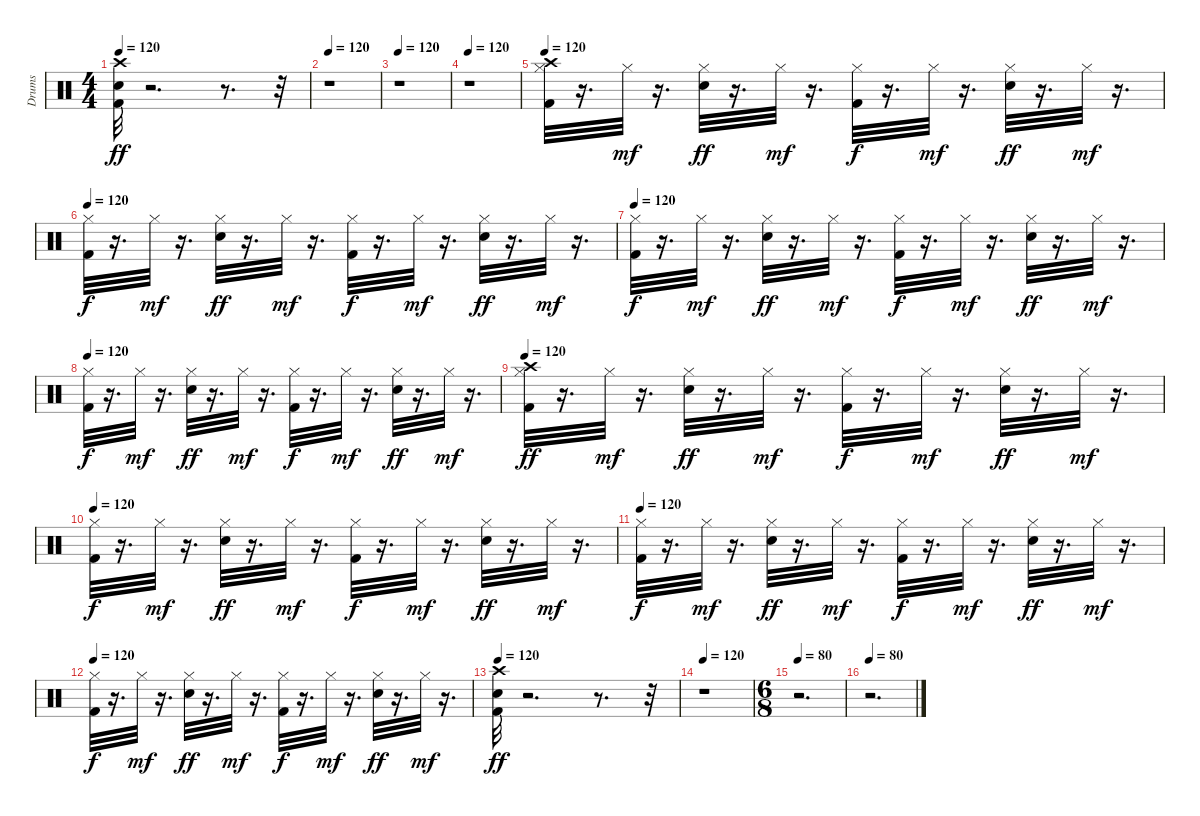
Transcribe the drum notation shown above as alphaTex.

\track ("Drums" "Drums") {instrument percussion}
\staff {score}
\articulation defaults
\ts (4 4)
\tempo 120
\clef neutral
\ks c
("Snare (hit) 2" "Kick (hit) 2" "Crash high (hit)").32{dy ff} r.2{d} r.8{d} r.32 |
\tempo 120
r.1 |
\tempo 120
r.1 |
\tempo 120
r.1 |
\tempo 120
("Kick (hit) 2" "Hi-Hat (closed)" "Crash high (hit)").32 r.16{d} "Hi-Hat (closed)".32{dy mf} r.16{d} ("Snare (hit) 2" "Hi-Hat (closed)").32{dy ff} r.16{d} "Hi-Hat (closed)".32{dy mf} r.16{d} ("Kick (hit) 2" "Hi-Hat (closed)").32{dy f} r.16{d} "Hi-Hat (closed)".32{dy mf} r.16{d} ("Snare (hit) 2" "Hi-Hat (closed)").32{dy ff} r.16{d} "Hi-Hat (closed)".32{dy mf} r.16{d} |
\tempo 120
("Kick (hit) 2" "Hi-Hat (closed)").32{dy f} r.16{d} "Hi-Hat (closed)".32{dy mf} r.16{d} ("Snare (hit) 2" "Hi-Hat (closed)").32{dy ff} r.16{d} "Hi-Hat (closed)".32{dy mf} r.16{d} ("Kick (hit) 2" "Hi-Hat (closed)").32{dy f} r.16{d} "Hi-Hat (closed)".32{dy mf} r.16{d} ("Snare (hit) 2" "Hi-Hat (closed)").32{dy ff} r.16{d} "Hi-Hat (closed)".32{dy mf} r.16{d} |
\tempo 120
("Kick (hit) 2" "Hi-Hat (closed)").32{dy f} r.16{d} "Hi-Hat (closed)".32{dy mf} r.16{d} ("Snare (hit) 2" "Hi-Hat (closed)").32{dy ff} r.16{d} "Hi-Hat (closed)".32{dy mf} r.16{d} ("Kick (hit) 2" "Hi-Hat (closed)").32{dy f} r.16{d} "Hi-Hat (closed)".32{dy mf} r.16{d} ("Snare (hit) 2" "Hi-Hat (closed)").32{dy ff} r.16{d} "Hi-Hat (closed)".32{dy mf} r.16{d} |
\tempo 120
("Kick (hit) 2" "Hi-Hat (closed)").32{dy f} r.16{d} "Hi-Hat (closed)".32{dy mf} r.16{d} ("Snare (hit) 2" "Hi-Hat (closed)").32{dy ff} r.16{d} "Hi-Hat (closed)".32{dy mf} r.16{d} ("Kick (hit) 2" "Hi-Hat (closed)").32{dy f} r.16{d} "Hi-Hat (closed)".32{dy mf} r.16{d} ("Snare (hit) 2" "Hi-Hat (closed)").32{dy ff} r.16{d} "Hi-Hat (closed)".32{dy mf} r.16{d} |
\tempo 120
("Kick (hit) 2" "Hi-Hat (closed)" "Crash high (hit)").32{dy ff} r.16{d} "Hi-Hat (closed)".32{dy mf} r.16{d} ("Snare (hit) 2" "Hi-Hat (closed)").32{dy ff} r.16{d} "Hi-Hat (closed)".32{dy mf} r.16{d} ("Kick (hit) 2" "Hi-Hat (closed)").32{dy f} r.16{d} "Hi-Hat (closed)".32{dy mf} r.16{d} ("Snare (hit) 2" "Hi-Hat (closed)").32{dy ff} r.16{d} "Hi-Hat (closed)".32{dy mf} r.16{d} |
\tempo 120
("Kick (hit) 2" "Hi-Hat (closed)").32{dy f} r.16{d} "Hi-Hat (closed)".32{dy mf} r.16{d} ("Snare (hit) 2" "Hi-Hat (closed)").32{dy ff} r.16{d} "Hi-Hat (closed)".32{dy mf} r.16{d} ("Kick (hit) 2" "Hi-Hat (closed)").32{dy f} r.16{d} "Hi-Hat (closed)".32{dy mf} r.16{d} ("Snare (hit) 2" "Hi-Hat (closed)").32{dy ff} r.16{d} "Hi-Hat (closed)".32{dy mf} r.16{d} |
\tempo 120
("Kick (hit) 2" "Hi-Hat (closed)").32{dy f} r.16{d} "Hi-Hat (closed)".32{dy mf} r.16{d} ("Snare (hit) 2" "Hi-Hat (closed)").32{dy ff} r.16{d} "Hi-Hat (closed)".32{dy mf} r.16{d} ("Kick (hit) 2" "Hi-Hat (closed)").32{dy f} r.16{d} "Hi-Hat (closed)".32{dy mf} r.16{d} ("Snare (hit) 2" "Hi-Hat (closed)").32{dy ff} r.16{d} "Hi-Hat (closed)".32{dy mf} r.16{d} |
\tempo 120
("Kick (hit) 2" "Hi-Hat (closed)").32{dy f} r.16{d} "Hi-Hat (closed)".32{dy mf} r.16{d} ("Snare (hit) 2" "Hi-Hat (closed)").32{dy ff} r.16{d} "Hi-Hat (closed)".32{dy mf} r.16{d} ("Kick (hit) 2" "Hi-Hat (closed)").32{dy f} r.16{d} "Hi-Hat (closed)".32{dy mf} r.16{d} ("Snare (hit) 2" "Hi-Hat (closed)").32{dy ff} r.16{d} "Hi-Hat (closed)".32{dy mf} r.16{d} |
\tempo 120
("Kick (hit) 2" "Snare (hit) 2" "Crash high (hit)").32{dy ff} r.2{d} r.8{d} r.32 |
\tempo 120
r.1 |
\ts (6 8)
\tempo 80
r.2{d} |
\tempo 80
r.2{d}
